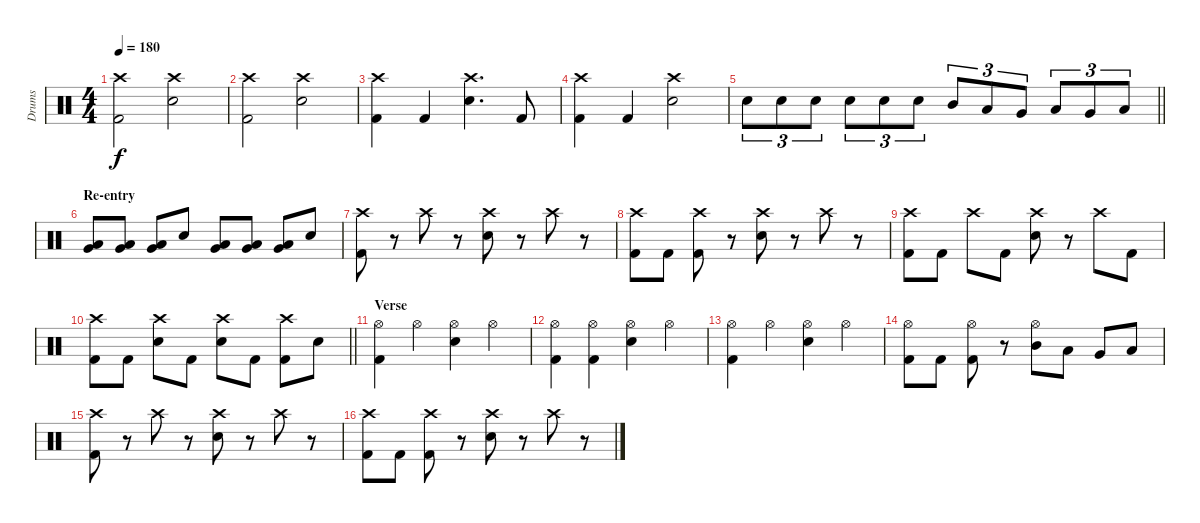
\track ("Drums" "Drums") {instrument percussion}
\staff {score}
\articulation defaults
\ts (4 4)
\tempo 180
\clef neutral
\ks c
("Crash high (hit)" "Kick (hit) 2").2{dy f} ("Crash high (hit)" "Electric Snare (hit)").2 |
("Kick (hit) 2" "Crash high (hit)").2 ("Crash high (hit)" "Electric Snare (hit)").2 |
("Crash high (hit)" "Kick (hit) 2").4 "Kick (hit) 2".4 ("Crash high (hit)" "Electric Snare (hit)").4{d} "Kick (hit) 2".8 |
("Crash high (hit)" "Kick (hit) 2").4 "Kick (hit) 2".4 ("Crash high (hit)" "Electric Snare (hit)").2 |
\barLineRight lightlight "Electric Snare (hit)".8{tu (3 2)} "Electric Snare (hit)".8{tu (3 2)} "Electric Snare (hit)".8{tu (3 2)} "Electric Snare (hit)".8{tu (3 2)} "Electric Snare (hit)".8{tu (3 2)} "Electric Snare (hit)".8{tu (3 2)} "Mid Tom (hit)".8{tu (3 2)} "Low Tom (hit)".8{tu (3 2)} "Very Low Tom (hit)".8{tu (3 2)} "Low Tom (hit)".8{tu (3 2)} "Very Low Tom (hit)".8{tu (3 2)} "Low Floor Tom (hit)".8{tu (3 2)}
|
\section ("" "Re-entry")
("Low Floor Tom (hit)" "Very Low Tom (hit)").8 ("Very Low Tom (hit)" "Low Floor Tom (hit)").8 ("Very Low Tom (hit)" "Low Floor Tom (hit)").8 "Electric Snare (hit)".8 ("Low Floor Tom (hit)" "Very Low Tom (hit)").8 ("Very Low Tom (hit)" "Low Floor Tom (hit)").8 ("Very Low Tom (hit)" "Low Floor Tom (hit)").8 "Electric Snare (hit)".8 |
("Crash high (hit)" "Kick (hit) 2").8 r.8 "Crash high (hit)".8 r.8 ("Crash high (hit)" "Electric Snare (hit)").8 r.8 "Crash high (hit)".8 r.8 |
("Crash high (hit)" "Kick (hit) 2").8 "Kick (hit) 2".8 ("Crash high (hit)" "Kick (hit) 2").8 r.8 ("Crash high (hit)" "Electric Snare (hit)").8 r.8 "Crash high (hit)".8 r.8 |
("Crash high (hit)" "Kick (hit) 2").8 "Kick (hit) 2".8 "Crash high (hit)".8 "Kick (hit) 2".8 ("Crash high (hit)" "Electric Snare (hit)").8 r.8 "Crash high (hit)".8 "Kick (hit) 2".8 |
\barLineRight lightlight
("Crash high (hit)" "Kick (hit) 2").8 "Kick (hit) 2".8 ("Electric Snare (hit)" "Crash high (hit)").8 "Kick (hit) 2".8 ("Electric Snare (hit)" "Crash high (hit)").8 "Kick (hit) 2".8 ("Crash high (hit)" "Kick (hit) 2").8 "Electric Snare (hit)".8 |
\section ("" "Verse")
("Kick (hit) 2" "Hi-Hat (open)").4 "Hi-Hat (open)".4 ("Hi-Hat (open)" "Electric Snare (hit)").4 "Hi-Hat (open)".4 |
("Hi-Hat (open)" "Kick (hit) 2").4 ("Hi-Hat (open)" "Kick (hit) 2").4 ("Hi-Hat (open)" "Electric Snare (hit)").4 "Hi-Hat (open)".4 |
("Kick (hit) 2" "Hi-Hat (open)").4 "Hi-Hat (open)".4 ("Hi-Hat (open)" "Electric Snare (hit)").4 "Hi-Hat (open)".4 |
("Kick (hit) 2" "Hi-Hat (open)").8 "Kick (hit) 2".8 ("Kick (hit) 2" "Hi-Hat (open)").8 r.8 ("Hi-Hat (open)" "Mid Tom (hit)").8 "Low Tom (hit)".8 "Very Low Tom (hit)".8 "Low Floor Tom (hit)".8 |
("Crash high (hit)" "Kick (hit) 2").8 r.8 "Crash high (hit)".8 r.8 ("Crash high (hit)" "Electric Snare (hit)").8 r.8 "Crash high (hit)".8 r.8 |
("Crash high (hit)" "Kick (hit) 2").8 "Kick (hit) 2".8 ("Crash high (hit)" "Kick (hit) 2").8 r.8 ("Crash high (hit)" "Electric Snare (hit)").8 r.8 "Crash high (hit)".8 r.8
